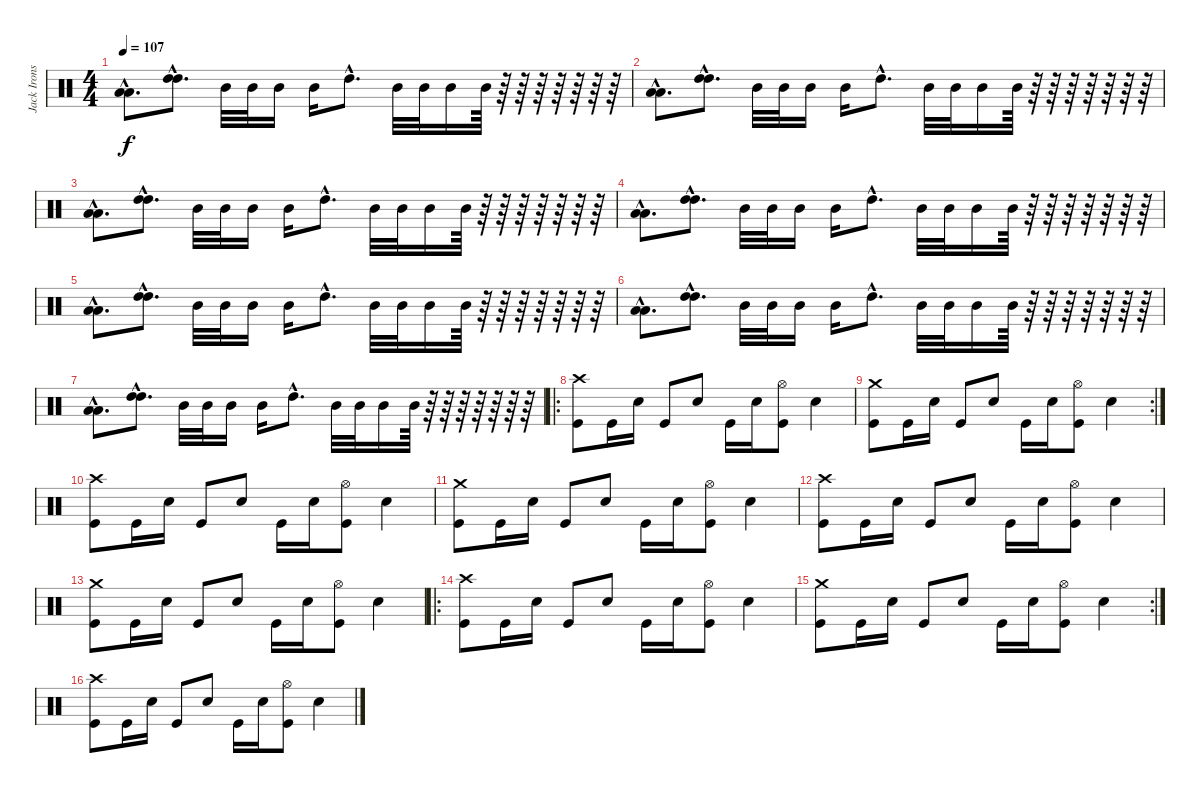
\track ("Jack Irons" "Jack Irons") {instrument percussion}
\staff {score}
\articulation defaults
\ts (4 4)
\tempo 107
\clef neutral
\ks c
("Low Tom (hit)"{hac} "Low Tom (hit)"{hac}).8{d dy f} ("High Tom (hit)"{hac} "High Tom (hit)"{hac}).8{d} "Mid Tom (hit)".32 "Mid Tom (hit)".32 "Mid Tom (hit)".16 "Mid Tom (hit)".16 "High Tom (hit)"{hac}.8{d} "Mid Tom (hit)".32 "Mid Tom (hit)".32 "Mid Tom (hit)".16 "Mid Tom (hit)".64 r.64 r.64 r.64 r.64 r.64 r.64 r.64 |
("Low Tom (hit)"{hac} "Low Tom (hit)"{hac}).8{d} ("High Tom (hit)"{hac} "High Tom (hit)"{hac}).8{d} "Mid Tom (hit)".32 "Mid Tom (hit)".32 "Mid Tom (hit)".16 "Mid Tom (hit)".16 "High Tom (hit)"{hac}.8{d} "Mid Tom (hit)".32 "Mid Tom (hit)".32 "Mid Tom (hit)".16 "Mid Tom (hit)".64 r.64 r.64 r.64 r.64 r.64 r.64 r.64 |
("Low Tom (hit)"{hac} "Low Tom (hit)"{hac}).8{d} ("High Tom (hit)"{hac} "High Tom (hit)"{hac}).8{d} "Mid Tom (hit)".32 "Mid Tom (hit)".32 "Mid Tom (hit)".16 "Mid Tom (hit)".16 "High Tom (hit)"{hac}.8{d} "Mid Tom (hit)".32 "Mid Tom (hit)".32 "Mid Tom (hit)".16 "Mid Tom (hit)".64 r.64 r.64 r.64 r.64 r.64 r.64 r.64 |
("Low Tom (hit)"{hac} "Low Tom (hit)"{hac}).8{d} ("High Tom (hit)"{hac} "High Tom (hit)"{hac}).8{d} "Mid Tom (hit)".32 "Mid Tom (hit)".32 "Mid Tom (hit)".16 "Mid Tom (hit)".16 "High Tom (hit)"{hac}.8{d} "Mid Tom (hit)".32 "Mid Tom (hit)".32 "Mid Tom (hit)".16 "Mid Tom (hit)".64 r.64 r.64 r.64 r.64 r.64 r.64 r.64 |
("Low Tom (hit)"{hac} "Low Tom (hit)"{hac}).8{d} ("High Tom (hit)"{hac} "High Tom (hit)"{hac}).8{d} "Mid Tom (hit)".32 "Mid Tom (hit)".32 "Mid Tom (hit)".16 "Mid Tom (hit)".16 "High Tom (hit)"{hac}.8{d} "Mid Tom (hit)".32 "Mid Tom (hit)".32 "Mid Tom (hit)".16 "Mid Tom (hit)".64 r.64 r.64 r.64 r.64 r.64 r.64 r.64 |
("Low Tom (hit)"{hac} "Low Tom (hit)"{hac}).8{d} ("High Tom (hit)"{hac} "High Tom (hit)"{hac}).8{d} "Mid Tom (hit)".32 "Mid Tom (hit)".32 "Mid Tom (hit)".16 "Mid Tom (hit)".16 "High Tom (hit)"{hac}.8{d} "Mid Tom (hit)".32 "Mid Tom (hit)".32 "Mid Tom (hit)".16 "Mid Tom (hit)".64 r.64 r.64 r.64 r.64 r.64 r.64 r.64 |
("Low Tom (hit)"{hac} "Low Tom (hit)"{hac}).8{d} ("High Tom (hit)"{hac} "High Tom (hit)"{hac}).8{d} "Mid Tom (hit)".32 "Mid Tom (hit)".32 "Mid Tom (hit)".16 "Mid Tom (hit)".16 "High Tom (hit)"{hac}.8{d} "Mid Tom (hit)".32 "Mid Tom (hit)".32 "Mid Tom (hit)".16 "Mid Tom (hit)".64 r.64 r.64 r.64 r.64 r.64 r.64 r.64 |
\ro
("Crash high (hit)" "Kick (hit)").8 "Kick (hit)".16 "Electric Snare (hit)".16 "Kick (hit)".8 "Electric Snare (hit)".8 "Kick (hit)".16 "Electric Snare (hit)".16 ("Hi-Hat (open)" "Kick (hit)").8 "Electric Snare (hit)".4 |
\rc 2
("Crash medium (hit)" "Kick (hit)").8 "Kick (hit)".16 "Electric Snare (hit)".16 "Kick (hit)".8 "Electric Snare (hit)".8 "Kick (hit)".16 "Electric Snare (hit)".16 ("Hi-Hat (open)" "Kick (hit)").8 "Electric Snare (hit)".4 |
("Crash high (hit)" "Kick (hit)").8 "Kick (hit)".16 "Electric Snare (hit)".16 "Kick (hit)".8 "Electric Snare (hit)".8 "Kick (hit)".16 "Electric Snare (hit)".16 ("Hi-Hat (open)" "Kick (hit)").8 "Electric Snare (hit)".4 |
("Crash medium (hit)" "Kick (hit)").8 "Kick (hit)".16 "Electric Snare (hit)".16 "Kick (hit)".8 "Electric Snare (hit)".8 "Kick (hit)".16 "Electric Snare (hit)".16 ("Hi-Hat (open)" "Kick (hit)").8 "Electric Snare (hit)".4 |
("Crash high (hit)" "Kick (hit)").8 "Kick (hit)".16 "Electric Snare (hit)".16 "Kick (hit)".8 "Electric Snare (hit)".8 "Kick (hit)".16 "Electric Snare (hit)".16 ("Hi-Hat (open)" "Kick (hit)").8 "Electric Snare (hit)".4 |
("Crash medium (hit)" "Kick (hit)").8 "Kick (hit)".16 "Electric Snare (hit)".16 "Kick (hit)".8 "Electric Snare (hit)".8 "Kick (hit)".16 "Electric Snare (hit)".16 ("Hi-Hat (open)" "Kick (hit)").8 "Electric Snare (hit)".4 |
\ro
("Crash high (hit)" "Kick (hit)").8 "Kick (hit)".16 "Electric Snare (hit)".16 "Kick (hit)".8 "Electric Snare (hit)".8 "Kick (hit)".16 "Electric Snare (hit)".16 ("Hi-Hat (open)" "Kick (hit)").8 "Electric Snare (hit)".4 |
\rc 2
("Crash medium (hit)" "Kick (hit)").8 "Kick (hit)".16 "Electric Snare (hit)".16 "Kick (hit)".8 "Electric Snare (hit)".8 "Kick (hit)".16 "Electric Snare (hit)".16 ("Hi-Hat (open)" "Kick (hit)").8 "Electric Snare (hit)".4 |
("Crash high (hit)" "Kick (hit)").8 "Kick (hit)".16 "Electric Snare (hit)".16 "Kick (hit)".8 "Electric Snare (hit)".8 "Kick (hit)".16 "Electric Snare (hit)".16 ("Hi-Hat (open)" "Kick (hit)").8 "Electric Snare (hit)".4
